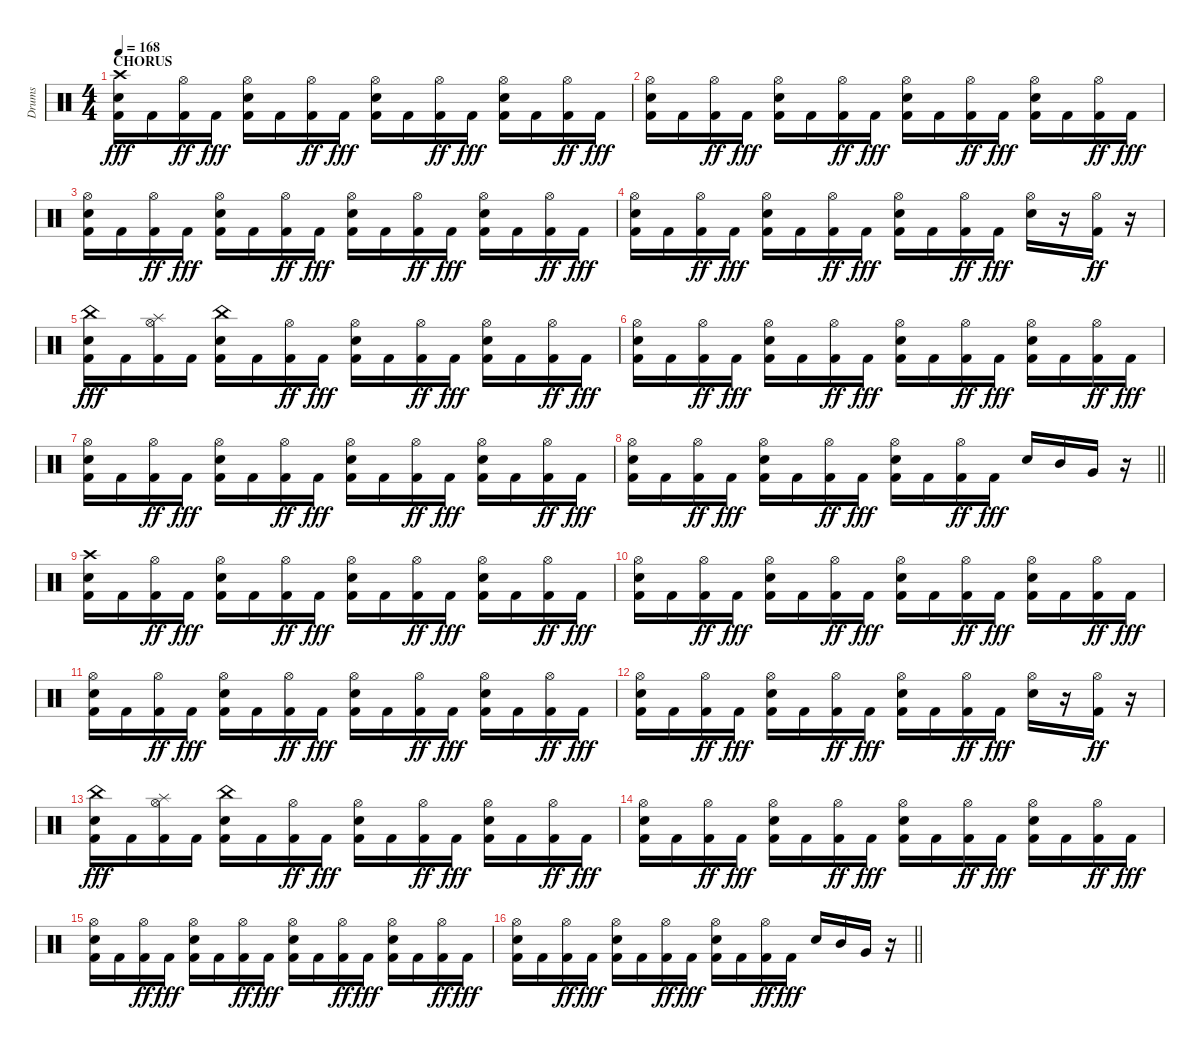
\track ("Drums" "Drums") {instrument percussion}
\staff {score}
\articulation defaults
\ts (4 4)
\section ("" "CHORUS")
\tempo 168
\clef neutral
\ks c
("Kick (hit) 2" "Snare (hit) 2" "Crash high (hit)").16{dy fff} "Kick (hit) 2".16 ("Kick (hit) 2" "Hi-Hat (open)").16{dy ff} "Kick (hit) 2".16{dy fff} ("Kick (hit) 2" "Snare (hit) 2" "Hi-Hat (open)").16 "Kick (hit) 2".16 ("Kick (hit) 2" "Hi-Hat (open)").16{dy ff} "Kick (hit) 2".16{dy fff} ("Kick (hit) 2" "Snare (hit) 2" "Hi-Hat (open)").16 "Kick (hit) 2".16 ("Kick (hit) 2" "Hi-Hat (open)").16{dy ff} "Kick (hit) 2".16{dy fff} ("Kick (hit) 2" "Snare (hit) 2" "Hi-Hat (open)").16 "Kick (hit) 2".16 ("Kick (hit) 2" "Hi-Hat (open)").16{dy ff} "Kick (hit) 2".16{dy fff} |
("Kick (hit) 2" "Snare (hit) 2" "Hi-Hat (open)").16 "Kick (hit) 2".16 ("Kick (hit) 2" "Hi-Hat (open)").16{dy ff} "Kick (hit) 2".16{dy fff} ("Kick (hit) 2" "Snare (hit) 2" "Hi-Hat (open)").16 "Kick (hit) 2".16 ("Kick (hit) 2" "Hi-Hat (open)").16{dy ff} "Kick (hit) 2".16{dy fff} ("Kick (hit) 2" "Snare (hit) 2" "Hi-Hat (open)").16 "Kick (hit) 2".16 ("Kick (hit) 2" "Hi-Hat (open)").16{dy ff} "Kick (hit) 2".16{dy fff} ("Kick (hit) 2" "Snare (hit) 2" "Hi-Hat (open)").16 "Kick (hit) 2".16 ("Kick (hit) 2" "Hi-Hat (open)").16{dy ff} "Kick (hit) 2".16{dy fff} |
("Kick (hit) 2" "Snare (hit) 2" "Hi-Hat (open)").16 "Kick (hit) 2".16 ("Kick (hit) 2" "Hi-Hat (open)").16{dy ff} "Kick (hit) 2".16{dy fff} ("Kick (hit) 2" "Snare (hit) 2" "Hi-Hat (open)").16 "Kick (hit) 2".16 ("Kick (hit) 2" "Hi-Hat (open)").16{dy ff} "Kick (hit) 2".16{dy fff} ("Kick (hit) 2" "Snare (hit) 2" "Hi-Hat (open)").16 "Kick (hit) 2".16 ("Kick (hit) 2" "Hi-Hat (open)").16{dy ff} "Kick (hit) 2".16{dy fff} ("Kick (hit) 2" "Snare (hit) 2" "Hi-Hat (open)").16 "Kick (hit) 2".16 ("Kick (hit) 2" "Hi-Hat (open)").16{dy ff} "Kick (hit) 2".16{dy fff} |
("Kick (hit) 2" "Snare (hit) 2" "Hi-Hat (open)").16 "Kick (hit) 2".16 ("Kick (hit) 2" "Hi-Hat (open)").16{dy ff} "Kick (hit) 2".16{dy fff} ("Kick (hit) 2" "Snare (hit) 2" "Hi-Hat (open)").16 "Kick (hit) 2".16 ("Kick (hit) 2" "Hi-Hat (open)").16{dy ff} "Kick (hit) 2".16{dy fff} ("Kick (hit) 2" "Snare (hit) 2" "Hi-Hat (open)").16 "Kick (hit) 2".16 ("Kick (hit) 2" "Hi-Hat (open)").16{dy ff} "Kick (hit) 2".16{dy fff} ("Snare (hit) 2" "Hi-Hat (open)").16 r.16 ("Kick (hit) 2" "Hi-Hat (open)").16{dy ff} r.16 |
("Kick (hit) 2" "Snare (hit) 2" "China (hit)").16{dy fff} "Kick (hit) 2".16 ("Kick (hit) 2" "Hi-Hat (open)" "Splash (hit)").16 "Kick (hit) 2".16 ("Kick (hit) 2" "Snare (hit) 2" "China (hit)").16 "Kick (hit) 2".16 ("Kick (hit) 2" "Hi-Hat (open)").16{dy ff} "Kick (hit) 2".16{dy fff} ("Kick (hit) 2" "Snare (hit) 2" "Hi-Hat (open)").16 "Kick (hit) 2".16 ("Kick (hit) 2" "Hi-Hat (open)").16{dy ff} "Kick (hit) 2".16{dy fff} ("Kick (hit) 2" "Snare (hit) 2" "Hi-Hat (open)").16 "Kick (hit) 2".16 ("Kick (hit) 2" "Hi-Hat (open)").16{dy ff} "Kick (hit) 2".16{dy fff} |
("Kick (hit) 2" "Snare (hit) 2" "Hi-Hat (open)").16 "Kick (hit) 2".16 ("Kick (hit) 2" "Hi-Hat (open)").16{dy ff} "Kick (hit) 2".16{dy fff} ("Kick (hit) 2" "Snare (hit) 2" "Hi-Hat (open)").16 "Kick (hit) 2".16 ("Kick (hit) 2" "Hi-Hat (open)").16{dy ff} "Kick (hit) 2".16{dy fff} ("Kick (hit) 2" "Snare (hit) 2" "Hi-Hat (open)").16 "Kick (hit) 2".16 ("Kick (hit) 2" "Hi-Hat (open)").16{dy ff} "Kick (hit) 2".16{dy fff} ("Kick (hit) 2" "Snare (hit) 2" "Hi-Hat (open)").16 "Kick (hit) 2".16 ("Kick (hit) 2" "Hi-Hat (open)").16{dy ff} "Kick (hit) 2".16{dy fff} |
("Kick (hit) 2" "Snare (hit) 2" "Hi-Hat (open)").16 "Kick (hit) 2".16 ("Kick (hit) 2" "Hi-Hat (open)").16{dy ff} "Kick (hit) 2".16{dy fff} ("Kick (hit) 2" "Snare (hit) 2" "Hi-Hat (open)").16 "Kick (hit) 2".16 ("Kick (hit) 2" "Hi-Hat (open)").16{dy ff} "Kick (hit) 2".16{dy fff} ("Kick (hit) 2" "Snare (hit) 2" "Hi-Hat (open)").16 "Kick (hit) 2".16 ("Kick (hit) 2" "Hi-Hat (open)").16{dy ff} "Kick (hit) 2".16{dy fff} ("Kick (hit) 2" "Snare (hit) 2" "Hi-Hat (open)").16 "Kick (hit) 2".16 ("Kick (hit) 2" "Hi-Hat (open)").16{dy ff} "Kick (hit) 2".16{dy fff} |
\barLineRight lightlight
("Kick (hit) 2" "Snare (hit) 2" "Hi-Hat (open)").16 "Kick (hit) 2".16 ("Kick (hit) 2" "Hi-Hat (open)").16{dy ff} "Kick (hit) 2".16{dy fff} ("Kick (hit) 2" "Snare (hit) 2" "Hi-Hat (open)").16 "Kick (hit) 2".16 ("Kick (hit) 2" "Hi-Hat (open)").16{dy ff} "Kick (hit) 2".16{dy fff} ("Kick (hit) 2" "Snare (hit) 2" "Hi-Hat (open)").16 "Kick (hit) 2".16 ("Kick (hit) 2" "Hi-Hat (open)").16{dy ff} "Kick (hit) 2".16{dy fff} "Snare (hit) 2".16 "Mid Tom (hit)".16 "Very Low Tom (hit)".16 r.16 |
("Kick (hit) 2" "Snare (hit) 2" "Crash high (hit)").16 "Kick (hit) 2".16 ("Kick (hit) 2" "Hi-Hat (open)").16{dy ff} "Kick (hit) 2".16{dy fff} ("Kick (hit) 2" "Snare (hit) 2" "Hi-Hat (open)").16 "Kick (hit) 2".16 ("Kick (hit) 2" "Hi-Hat (open)").16{dy ff} "Kick (hit) 2".16{dy fff} ("Kick (hit) 2" "Snare (hit) 2" "Hi-Hat (open)").16 "Kick (hit) 2".16 ("Kick (hit) 2" "Hi-Hat (open)").16{dy ff} "Kick (hit) 2".16{dy fff} ("Kick (hit) 2" "Snare (hit) 2" "Hi-Hat (open)").16 "Kick (hit) 2".16 ("Kick (hit) 2" "Hi-Hat (open)").16{dy ff} "Kick (hit) 2".16{dy fff} |
("Kick (hit) 2" "Snare (hit) 2" "Hi-Hat (open)").16 "Kick (hit) 2".16 ("Kick (hit) 2" "Hi-Hat (open)").16{dy ff} "Kick (hit) 2".16{dy fff} ("Kick (hit) 2" "Snare (hit) 2" "Hi-Hat (open)").16 "Kick (hit) 2".16 ("Kick (hit) 2" "Hi-Hat (open)").16{dy ff} "Kick (hit) 2".16{dy fff} ("Kick (hit) 2" "Snare (hit) 2" "Hi-Hat (open)").16 "Kick (hit) 2".16 ("Kick (hit) 2" "Hi-Hat (open)").16{dy ff} "Kick (hit) 2".16{dy fff} ("Kick (hit) 2" "Snare (hit) 2" "Hi-Hat (open)").16 "Kick (hit) 2".16 ("Kick (hit) 2" "Hi-Hat (open)").16{dy ff} "Kick (hit) 2".16{dy fff} |
("Kick (hit) 2" "Snare (hit) 2" "Hi-Hat (open)").16 "Kick (hit) 2".16 ("Kick (hit) 2" "Hi-Hat (open)").16{dy ff} "Kick (hit) 2".16{dy fff} ("Kick (hit) 2" "Snare (hit) 2" "Hi-Hat (open)").16 "Kick (hit) 2".16 ("Kick (hit) 2" "Hi-Hat (open)").16{dy ff} "Kick (hit) 2".16{dy fff} ("Kick (hit) 2" "Snare (hit) 2" "Hi-Hat (open)").16 "Kick (hit) 2".16 ("Kick (hit) 2" "Hi-Hat (open)").16{dy ff} "Kick (hit) 2".16{dy fff} ("Kick (hit) 2" "Snare (hit) 2" "Hi-Hat (open)").16 "Kick (hit) 2".16 ("Kick (hit) 2" "Hi-Hat (open)").16{dy ff} "Kick (hit) 2".16{dy fff} |
("Kick (hit) 2" "Snare (hit) 2" "Hi-Hat (open)").16 "Kick (hit) 2".16 ("Kick (hit) 2" "Hi-Hat (open)").16{dy ff} "Kick (hit) 2".16{dy fff} ("Kick (hit) 2" "Snare (hit) 2" "Hi-Hat (open)").16 "Kick (hit) 2".16 ("Kick (hit) 2" "Hi-Hat (open)").16{dy ff} "Kick (hit) 2".16{dy fff} ("Kick (hit) 2" "Snare (hit) 2" "Hi-Hat (open)").16 "Kick (hit) 2".16 ("Kick (hit) 2" "Hi-Hat (open)").16{dy ff} "Kick (hit) 2".16{dy fff} ("Snare (hit) 2" "Hi-Hat (open)").16 r.16 ("Kick (hit) 2" "Hi-Hat (open)").16{dy ff} r.16 |
("Kick (hit) 2" "Snare (hit) 2" "China (hit)").16{dy fff} "Kick (hit) 2".16 ("Kick (hit) 2" "Hi-Hat (open)" "Splash (hit)").16 "Kick (hit) 2".16 ("Kick (hit) 2" "Snare (hit) 2" "China (hit)").16 "Kick (hit) 2".16 ("Kick (hit) 2" "Hi-Hat (open)").16{dy ff} "Kick (hit) 2".16{dy fff} ("Kick (hit) 2" "Snare (hit) 2" "Hi-Hat (open)").16 "Kick (hit) 2".16 ("Kick (hit) 2" "Hi-Hat (open)").16{dy ff} "Kick (hit) 2".16{dy fff} ("Kick (hit) 2" "Snare (hit) 2" "Hi-Hat (open)").16 "Kick (hit) 2".16 ("Kick (hit) 2" "Hi-Hat (open)").16{dy ff} "Kick (hit) 2".16{dy fff} |
("Kick (hit) 2" "Snare (hit) 2" "Hi-Hat (open)").16 "Kick (hit) 2".16 ("Kick (hit) 2" "Hi-Hat (open)").16{dy ff} "Kick (hit) 2".16{dy fff} ("Kick (hit) 2" "Snare (hit) 2" "Hi-Hat (open)").16 "Kick (hit) 2".16 ("Kick (hit) 2" "Hi-Hat (open)").16{dy ff} "Kick (hit) 2".16{dy fff} ("Kick (hit) 2" "Snare (hit) 2" "Hi-Hat (open)").16 "Kick (hit) 2".16 ("Kick (hit) 2" "Hi-Hat (open)").16{dy ff} "Kick (hit) 2".16{dy fff} ("Kick (hit) 2" "Snare (hit) 2" "Hi-Hat (open)").16 "Kick (hit) 2".16 ("Kick (hit) 2" "Hi-Hat (open)").16{dy ff} "Kick (hit) 2".16{dy fff} |
("Kick (hit) 2" "Snare (hit) 2" "Hi-Hat (open)").16 "Kick (hit) 2".16 ("Kick (hit) 2" "Hi-Hat (open)").16{dy ff} "Kick (hit) 2".16{dy fff} ("Kick (hit) 2" "Snare (hit) 2" "Hi-Hat (open)").16 "Kick (hit) 2".16 ("Kick (hit) 2" "Hi-Hat (open)").16{dy ff} "Kick (hit) 2".16{dy fff} ("Kick (hit) 2" "Snare (hit) 2" "Hi-Hat (open)").16 "Kick (hit) 2".16 ("Kick (hit) 2" "Hi-Hat (open)").16{dy ff} "Kick (hit) 2".16{dy fff} ("Kick (hit) 2" "Snare (hit) 2" "Hi-Hat (open)").16 "Kick (hit) 2".16 ("Kick (hit) 2" "Hi-Hat (open)").16{dy ff} "Kick (hit) 2".16{dy fff} |
\barLineRight lightlight
("Kick (hit) 2" "Snare (hit) 2" "Hi-Hat (open)").16 "Kick (hit) 2".16 ("Kick (hit) 2" "Hi-Hat (open)").16{dy ff} "Kick (hit) 2".16{dy fff} ("Kick (hit) 2" "Snare (hit) 2" "Hi-Hat (open)").16 "Kick (hit) 2".16 ("Kick (hit) 2" "Hi-Hat (open)").16{dy ff} "Kick (hit) 2".16{dy fff} ("Kick (hit) 2" "Snare (hit) 2" "Hi-Hat (open)").16 "Kick (hit) 2".16 ("Kick (hit) 2" "Hi-Hat (open)").16{dy ff} "Kick (hit) 2".16{dy fff} "Snare (hit) 2".16 "Mid Tom (hit)".16 "Very Low Tom (hit)".16 r.16
